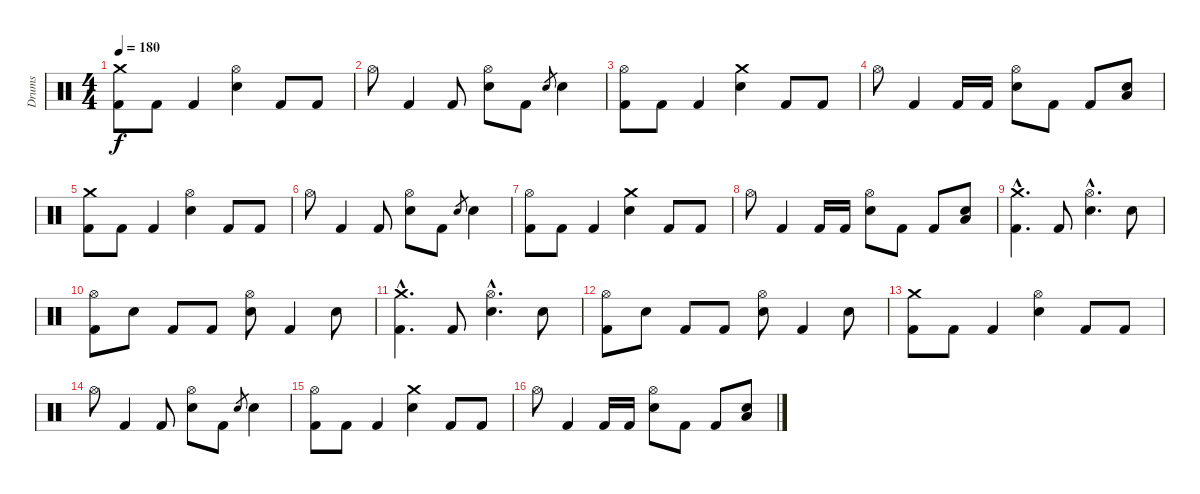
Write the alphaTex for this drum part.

\track ("Drums" "Drums") {instrument percussion}
\staff {score}
\articulation defaults
\ts (4 4)
\tempo 180
\clef neutral
\ks c
("Crash medium (hit)" "Kick (hit) 2").8{dy f} "Kick (hit) 2".8 "Kick (hit) 2".4 ("Hi-Hat (open)" "Electric Snare (hit)").4 "Kick (hit) 2".8 "Kick (hit) 2".8 |
"Hi-Hat (open)".8 "Kick (hit) 2".4 "Kick (hit) 2".8 ("Hi-Hat (open)" "Electric Snare (hit)").8 "Kick (hit) 2".8 "Electric Snare (hit)".8{gr} "Electric Snare (hit)".4 |
("Hi-Hat (open)" "Kick (hit) 2").8 "Kick (hit) 2".8 "Kick (hit) 2".4 ("Crash medium (hit)" "Electric Snare (hit)").4 "Kick (hit) 2".8 "Kick (hit) 2".8 |
"Hi-Hat (open)".8 "Kick (hit) 2".4 "Kick (hit) 2".16 "Kick (hit) 2".16 ("Hi-Hat (open)" "Electric Snare (hit)").8 "Kick (hit) 2".8 "Kick (hit) 2".8 ("Electric Snare (hit)" "Low Tom (hit)").8 |
("Crash medium (hit)" "Kick (hit) 2").8 "Kick (hit) 2".8 "Kick (hit) 2".4 ("Hi-Hat (open)" "Electric Snare (hit)").4 "Kick (hit) 2".8 "Kick (hit) 2".8 |
"Hi-Hat (open)".8 "Kick (hit) 2".4 "Kick (hit) 2".8 ("Hi-Hat (open)" "Electric Snare (hit)").8 "Kick (hit) 2".8 "Electric Snare (hit)".8{gr} "Electric Snare (hit)".4 |
("Hi-Hat (open)" "Kick (hit) 2").8 "Kick (hit) 2".8 "Kick (hit) 2".4 ("Crash medium (hit)" "Electric Snare (hit)").4 "Kick (hit) 2".8 "Kick (hit) 2".8 |
"Hi-Hat (open)".8 "Kick (hit) 2".4 "Kick (hit) 2".16 "Kick (hit) 2".16 ("Hi-Hat (open)" "Electric Snare (hit)").8 "Kick (hit) 2".8 "Kick (hit) 2".8 ("Electric Snare (hit)" "Low Tom (hit)").8 |
("Crash medium (hit)"{hac} "Kick (hit) 2"{hac}).4{d} "Kick (hit) 2".8 ("Hi-Hat (open)"{hac} "Electric Snare (hit)"{hac}).4{d} "Electric Snare (hit)".8 |
("Hi-Hat (open)" "Kick (hit) 2").8 "Electric Snare (hit)".8 "Kick (hit) 2".8 "Kick (hit) 2".8 ("Hi-Hat (open)" "Electric Snare (hit)").8 "Kick (hit) 2".4 "Electric Snare (hit)".8 |
("Crash medium (hit)"{hac} "Kick (hit) 2"{hac}).4{d} "Kick (hit) 2".8 ("Hi-Hat (open)"{hac} "Electric Snare (hit)"{hac}).4{d} "Electric Snare (hit)".8 |
("Hi-Hat (open)" "Kick (hit) 2").8 "Electric Snare (hit)".8 "Kick (hit) 2".8 "Kick (hit) 2".8 ("Hi-Hat (open)" "Electric Snare (hit)").8 "Kick (hit) 2".4 "Electric Snare (hit)".8 |
("Crash medium (hit)" "Kick (hit) 2").8 "Kick (hit) 2".8 "Kick (hit) 2".4 ("Hi-Hat (open)" "Electric Snare (hit)").4 "Kick (hit) 2".8 "Kick (hit) 2".8 |
"Hi-Hat (open)".8 "Kick (hit) 2".4 "Kick (hit) 2".8 ("Hi-Hat (open)" "Electric Snare (hit)").8 "Kick (hit) 2".8 "Electric Snare (hit)".8{gr} "Electric Snare (hit)".4 |
("Hi-Hat (open)" "Kick (hit) 2").8 "Kick (hit) 2".8 "Kick (hit) 2".4 ("Crash medium (hit)" "Electric Snare (hit)").4 "Kick (hit) 2".8 "Kick (hit) 2".8 |
"Hi-Hat (open)".8 "Kick (hit) 2".4 "Kick (hit) 2".16 "Kick (hit) 2".16 ("Hi-Hat (open)" "Electric Snare (hit)").8 "Kick (hit) 2".8 "Kick (hit) 2".8 ("Electric Snare (hit)" "Low Tom (hit)").8
